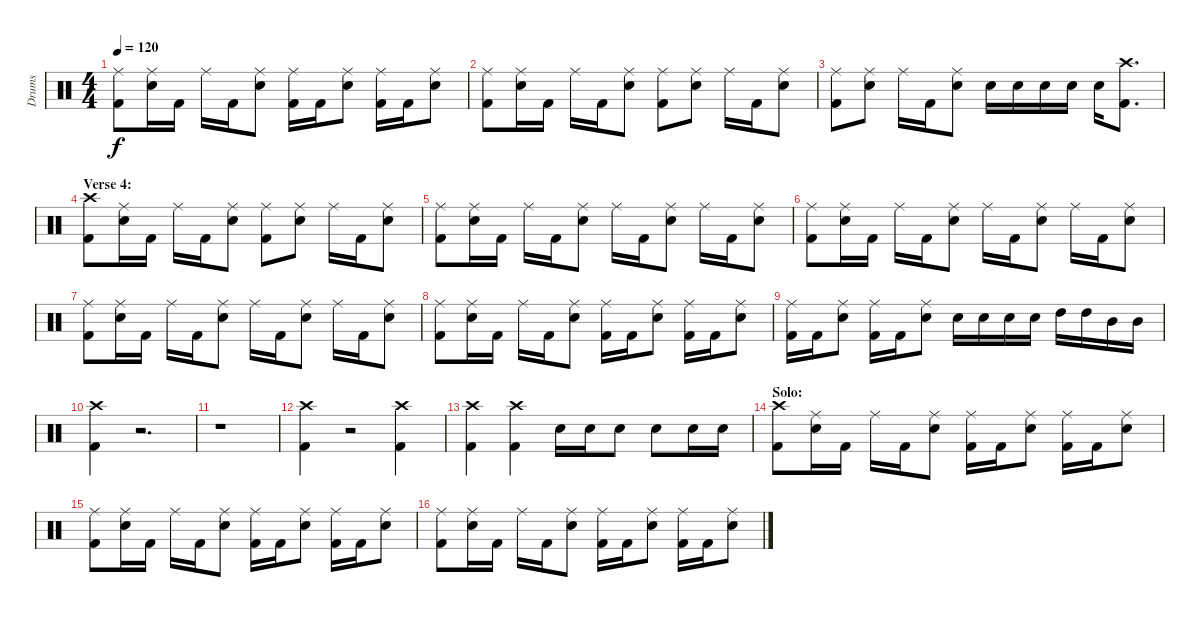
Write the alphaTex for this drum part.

\track ("Drums" "Drums") {instrument percussion}
\staff {score}
\articulation defaults
\ts (4 4)
\tempo 120
\clef neutral
\ks c
("Ride (middle)" "Kick (hit) 2").8{dy f} ("Ride (middle)" "Electric Snare (hit)").16 "Kick (hit) 2".16 "Ride (middle)".16 "Kick (hit) 2".16 ("Ride (middle)" "Electric Snare (hit)").8 ("Ride (middle)" "Kick (hit) 2").16 "Kick (hit) 2".16 ("Ride (middle)" "Electric Snare (hit)").8 ("Ride (middle)" "Kick (hit) 2").16 "Kick (hit) 2".16 ("Ride (middle)" "Electric Snare (hit)").8 |
("Ride (middle)" "Kick (hit) 2").8 ("Ride (middle)" "Electric Snare (hit)").16 "Kick (hit) 2".16 "Ride (middle)".16 "Kick (hit) 2".16 ("Ride (middle)" "Electric Snare (hit)").8 ("Ride (middle)" "Kick (hit) 2").8 ("Ride (middle)" "Electric Snare (hit)").8 "Ride (middle)".16 "Kick (hit) 2".16 ("Ride (middle)" "Electric Snare (hit)").8 |
("Ride (middle)" "Kick (hit) 2").8 ("Ride (middle)" "Electric Snare (hit)").8 "Ride (middle)".16 "Kick (hit) 2".16 ("Ride (middle)" "Electric Snare (hit)").8 "Electric Snare (hit)".16 "Electric Snare (hit)".16 "Electric Snare (hit)".16 "Electric Snare (hit)".16 "Electric Snare (hit)".16 ("Crash high (hit)" "Kick (hit) 2").8{d} |
\section ("" "Verse 4:")
("Crash high (hit)" "Kick (hit) 2").8 ("Ride (middle)" "Electric Snare (hit)").16 "Kick (hit) 2".16 "Ride (middle)".16 "Kick (hit) 2".16 ("Ride (middle)" "Electric Snare (hit)").8 ("Ride (middle)" "Kick (hit) 2").8 ("Ride (middle)" "Electric Snare (hit)").8 "Ride (middle)".16 "Kick (hit) 2".16 ("Ride (middle)" "Electric Snare (hit)").8 |
("Ride (middle)" "Kick (hit) 2").8 ("Ride (middle)" "Electric Snare (hit)").16 "Kick (hit) 2".16 "Ride (middle)".16 "Kick (hit) 2".16 ("Ride (middle)" "Electric Snare (hit)").8 "Ride (middle)".16 "Kick (hit) 2".16 ("Ride (middle)" "Electric Snare (hit)").8 "Ride (middle)".16 "Kick (hit) 2".16 ("Ride (middle)" "Electric Snare (hit)").8 |
("Ride (middle)" "Kick (hit) 2").8 ("Ride (middle)" "Electric Snare (hit)").16 "Kick (hit) 2".16 "Ride (middle)".16 "Kick (hit) 2".16 ("Ride (middle)" "Electric Snare (hit)").8 "Ride (middle)".16 "Kick (hit) 2".16 ("Ride (middle)" "Electric Snare (hit)").8 "Ride (middle)".16 "Kick (hit) 2".16 ("Ride (middle)" "Electric Snare (hit)").8 |
("Ride (middle)" "Kick (hit) 2").8 ("Ride (middle)" "Electric Snare (hit)").16 "Kick (hit) 2".16 "Ride (middle)".16 "Kick (hit) 2".16 ("Ride (middle)" "Electric Snare (hit)").8 "Ride (middle)".16 "Kick (hit) 2".16 ("Ride (middle)" "Electric Snare (hit)").8 "Ride (middle)".16 "Kick (hit) 2".16 ("Ride (middle)" "Electric Snare (hit)").8 |
("Ride (middle)" "Kick (hit) 2").8 ("Ride (middle)" "Electric Snare (hit)").16 "Kick (hit) 2".16 "Ride (middle)".16 "Kick (hit) 2".16 ("Ride (middle)" "Electric Snare (hit)").8 ("Ride (middle)" "Kick (hit) 2").16 "Kick (hit) 2".16 ("Ride (middle)" "Electric Snare (hit)").8 ("Ride (middle)" "Kick (hit) 2").16 "Kick (hit) 2".16 ("Ride (middle)" "Electric Snare (hit)").8 |
("Ride (middle)" "Kick (hit) 2").16 "Kick (hit) 2".16 ("Ride (middle)" "Electric Snare (hit)").8 ("Ride (middle)" "Kick (hit) 2").16 "Kick (hit) 2".16 ("Ride (middle)" "Electric Snare (hit)").8 "Electric Snare (hit)".16 "Electric Snare (hit)".16 "Electric Snare (hit)".16 "Electric Snare (hit)".16 "High Tom (hit)".16 "High Tom (hit)".16 "Mid Tom (hit)".16 "Mid Tom (hit)".16 |
("Crash high (hit)" "Kick (hit) 2").4 r.2{d} |
r.1 |
("Crash high (hit)" "Kick (hit) 2").4 r.2 ("Crash high (hit)" "Kick (hit) 2").4 |
("Crash high (hit)" "Kick (hit) 2").4 ("Crash high (hit)" "Kick (hit) 2").4 "Electric Snare (hit)".16 "Electric Snare (hit)".16 "Electric Snare (hit)".8 "Electric Snare (hit)".8 "Electric Snare (hit)".16 "Electric Snare (hit)".16 |
\section ("" "Solo:")
("Crash high (hit)" "Kick (hit) 2").8 ("Ride (middle)" "Electric Snare (hit)").16 "Kick (hit) 2".16 "Ride (middle)".16 "Kick (hit) 2".16 ("Ride (middle)" "Electric Snare (hit)").8 ("Ride (middle)" "Kick (hit) 2").16 "Kick (hit) 2".16 ("Ride (middle)" "Electric Snare (hit)").8 ("Ride (middle)" "Kick (hit) 2").16 "Kick (hit) 2".16 ("Ride (middle)" "Electric Snare (hit)").8 |
("Ride (middle)" "Kick (hit) 2").8 ("Ride (middle)" "Electric Snare (hit)").16 "Kick (hit) 2".16 "Ride (middle)".16 "Kick (hit) 2".16 ("Ride (middle)" "Electric Snare (hit)").8 ("Ride (middle)" "Kick (hit) 2").16 "Kick (hit) 2".16 ("Ride (middle)" "Electric Snare (hit)").8 ("Ride (middle)" "Kick (hit) 2").16 "Kick (hit) 2".16 ("Ride (middle)" "Electric Snare (hit)").8 |
("Ride (middle)" "Kick (hit) 2").8 ("Ride (middle)" "Electric Snare (hit)").16 "Kick (hit) 2".16 "Ride (middle)".16 "Kick (hit) 2".16 ("Ride (middle)" "Electric Snare (hit)").8 ("Ride (middle)" "Kick (hit) 2").16 "Kick (hit) 2".16 ("Ride (middle)" "Electric Snare (hit)").8 ("Ride (middle)" "Kick (hit) 2").16 "Kick (hit) 2".16 ("Ride (middle)" "Electric Snare (hit)").8
